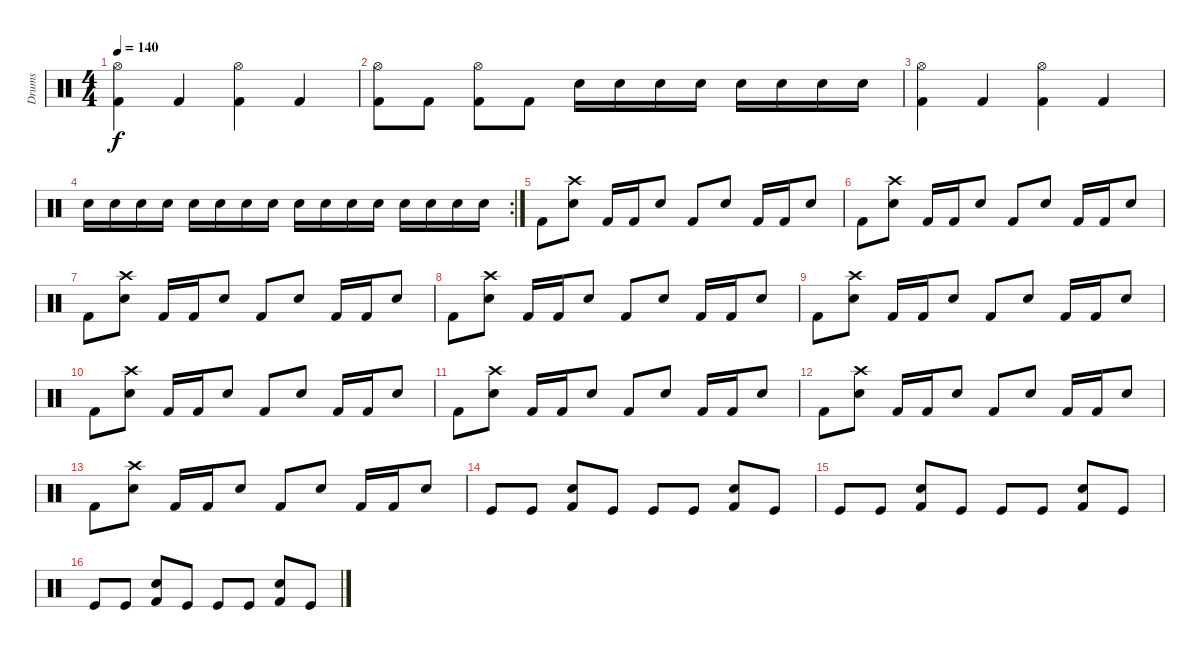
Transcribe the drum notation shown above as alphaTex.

\track ("Drums" "Drums") {instrument percussion}
\staff {score}
\articulation defaults
\ts (4 4)
\tempo 140
\clef neutral
\ks c
("Kick (hit) 2" "Hi-Hat (open)").4{dy f} "Kick (hit) 2".4 ("Kick (hit) 2" "Hi-Hat (open)").4 "Kick (hit) 2".4 |
("Kick (hit) 2" "Hi-Hat (open)").8 "Kick (hit) 2".8 ("Kick (hit) 2" "Hi-Hat (open)").8 "Kick (hit) 2".8 "Snare (hit) 2".16 "Snare (hit) 2".16 "Snare (hit) 2".16 "Snare (hit) 2".16 "Snare (hit) 2".16 "Snare (hit) 2".16 "Snare (hit) 2".16 "Snare (hit) 2".16 |
("Kick (hit) 2" "Hi-Hat (open)").4 "Kick (hit) 2".4 ("Kick (hit) 2" "Hi-Hat (open)").4 "Kick (hit) 2".4 |
\rc 2 "Snare (hit) 2".16 "Snare (hit) 2".16 "Snare (hit) 2".16 "Snare (hit) 2".16 "Snare (hit) 2".16 "Snare (hit) 2".16 "Snare (hit) 2".16 "Snare (hit) 2".16 "Snare (hit) 2".16 "Snare (hit) 2".16 "Snare (hit) 2".16 "Snare (hit) 2".16 "Snare (hit) 2".16 "Snare (hit) 2".16 "Snare (hit) 2".16 "Snare (hit) 2".16
|
"Kick (hit) 2".8 ("Snare (hit) 2" "Crash high (hit)").8 "Kick (hit) 2".16 "Kick (hit) 2".16 "Snare (hit) 2".8 "Kick (hit) 2".8 "Snare (hit) 2".8 "Kick (hit) 2".16 "Kick (hit) 2".16 "Snare (hit) 2".8 |
"Kick (hit) 2".8 ("Snare (hit) 2" "Crash high (hit)").8 "Kick (hit) 2".16 "Kick (hit) 2".16 "Snare (hit) 2".8 "Kick (hit) 2".8 "Snare (hit) 2".8 "Kick (hit) 2".16 "Kick (hit) 2".16 "Snare (hit) 2".8 |
"Kick (hit) 2".8 ("Snare (hit) 2" "Crash high (hit)").8 "Kick (hit) 2".16 "Kick (hit) 2".16 "Snare (hit) 2".8 "Kick (hit) 2".8 "Snare (hit) 2".8 "Kick (hit) 2".16 "Kick (hit) 2".16 "Snare (hit) 2".8 |
"Kick (hit) 2".8 ("Snare (hit) 2" "Crash high (hit)").8 "Kick (hit) 2".16 "Kick (hit) 2".16 "Snare (hit) 2".8 "Kick (hit) 2".8 "Snare (hit) 2".8 "Kick (hit) 2".16 "Kick (hit) 2".16 "Snare (hit) 2".8 |
"Kick (hit) 2".8 ("Snare (hit) 2" "Crash high (hit)").8 "Kick (hit) 2".16 "Kick (hit) 2".16 "Snare (hit) 2".8 "Kick (hit) 2".8 "Snare (hit) 2".8 "Kick (hit) 2".16 "Kick (hit) 2".16 "Snare (hit) 2".8 |
"Kick (hit) 2".8 ("Snare (hit) 2" "Crash high (hit)").8 "Kick (hit) 2".16 "Kick (hit) 2".16 "Snare (hit) 2".8 "Kick (hit) 2".8 "Snare (hit) 2".8 "Kick (hit) 2".16 "Kick (hit) 2".16 "Snare (hit) 2".8 |
"Kick (hit) 2".8 ("Snare (hit) 2" "Crash high (hit)").8 "Kick (hit) 2".16 "Kick (hit) 2".16 "Snare (hit) 2".8 "Kick (hit) 2".8 "Snare (hit) 2".8 "Kick (hit) 2".16 "Kick (hit) 2".16 "Snare (hit) 2".8 |
"Kick (hit) 2".8 ("Snare (hit) 2" "Crash high (hit)").8 "Kick (hit) 2".16 "Kick (hit) 2".16 "Snare (hit) 2".8 "Kick (hit) 2".8 "Snare (hit) 2".8 "Kick (hit) 2".16 "Kick (hit) 2".16 "Snare (hit) 2".8 |
"Kick (hit) 2".8 ("Snare (hit) 2" "Crash high (hit)").8 "Kick (hit) 2".16 "Kick (hit) 2".16 "Snare (hit) 2".8 "Kick (hit) 2".8 "Snare (hit) 2".8 "Kick (hit) 2".16 "Kick (hit) 2".16 "Snare (hit) 2".8 |
"Kick (hit)".8 "Kick (hit)".8 ("Kick (hit) 2" "Electric Snare (hit)").8 "Kick (hit)".8 "Kick (hit)".8 "Kick (hit)".8 ("Kick (hit) 2" "Electric Snare (hit)").8 "Kick (hit)".8 |
"Kick (hit)".8 "Kick (hit)".8 ("Kick (hit) 2" "Electric Snare (hit)").8 "Kick (hit)".8 "Kick (hit)".8 "Kick (hit)".8 ("Kick (hit) 2" "Electric Snare (hit)").8 "Kick (hit)".8 |
"Kick (hit)".8 "Kick (hit)".8 ("Kick (hit) 2" "Electric Snare (hit)").8 "Kick (hit)".8 "Kick (hit)".8 "Kick (hit)".8 ("Kick (hit) 2" "Electric Snare (hit)").8 "Kick (hit)".8
